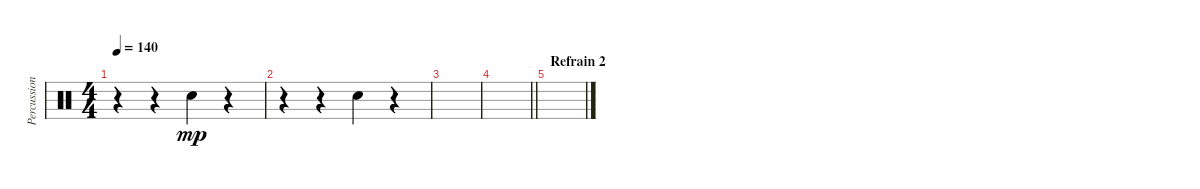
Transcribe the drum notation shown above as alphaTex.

\track ("Percussions" "Percussion") {instrument percussion}
\staff {score}
\articulation defaults
\ts (4 4)
\tempo 140
\clef neutral
\ks c
r.4{dy mp} r.4 "Hand Clap (hit)".4 r.4 |
r.4 r.4 "Hand Clap (hit)".4 r.4 |
|
\barLineRight lightlight
|
\section ("" "Refrain 2")
